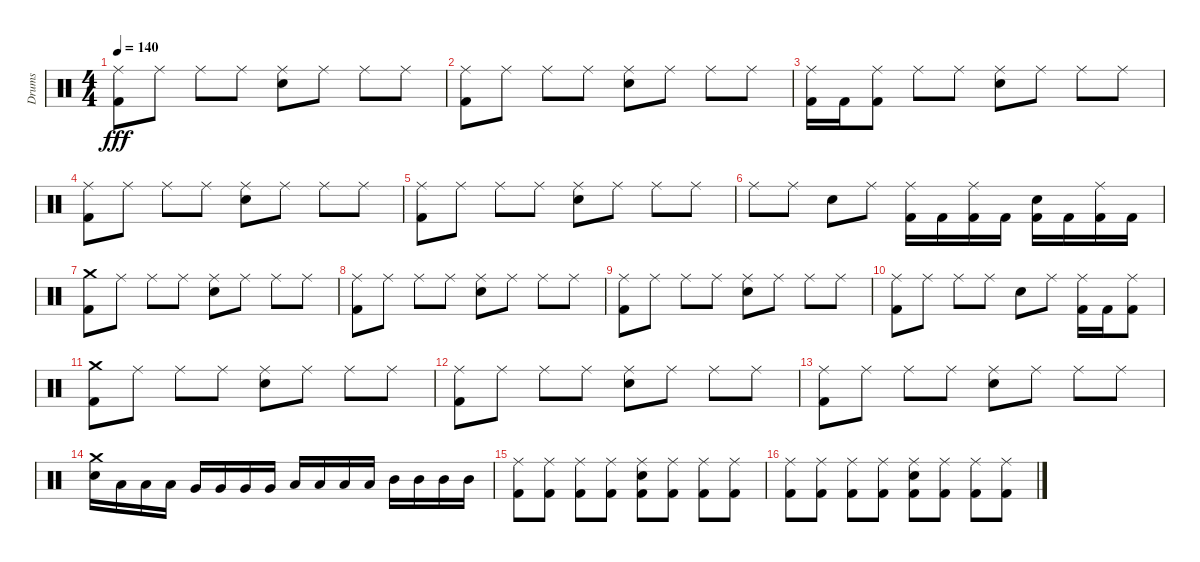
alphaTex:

\track ("Drums" "Drums") {instrument percussion}
\staff {score}
\articulation defaults
\ts (4 4)
\tempo 140
\clef neutral
\ks c
("Kick (hit) 2" "Ride (middle)").8{dy fff} "Ride (middle)".8 "Ride (middle)".8 "Ride (middle)".8 ("Electric Snare (hit)" "Ride (middle)").8 "Ride (middle)".8 "Ride (middle)".8 "Ride (middle)".8 |
("Kick (hit) 2" "Ride (middle)").8 "Ride (middle)".8 "Ride (middle)".8 "Ride (middle)".8 ("Electric Snare (hit)" "Ride (middle)").8 "Ride (middle)".8 "Ride (middle)".8 "Ride (middle)".8 |
("Kick (hit) 2" "Ride (middle)").16 "Kick (hit) 2".16 ("Kick (hit) 2" "Ride (middle)").8 "Ride (middle)".8 "Ride (middle)".8 ("Electric Snare (hit)" "Ride (middle)").8 "Ride (middle)".8 "Ride (middle)".8 "Ride (middle)".8 |
("Kick (hit) 2" "Ride (middle)").8 "Ride (middle)".8 "Ride (middle)".8 "Ride (middle)".8 ("Electric Snare (hit)" "Ride (middle)").8 "Ride (middle)".8 "Ride (middle)".8 "Ride (middle)".8 |
("Kick (hit) 2" "Ride (middle)").8 "Ride (middle)".8 "Ride (middle)".8 "Ride (middle)".8 ("Electric Snare (hit)" "Ride (middle)").8 "Ride (middle)".8 "Ride (middle)".8 "Ride (middle)".8 |
"Ride (middle)".8 "Ride (middle)".8 "Electric Snare (hit)".8 "Ride (middle)".8 ("Kick (hit) 2" "Ride (middle)").16 "Kick (hit) 2".16 ("Kick (hit) 2" "Ride (middle)").16 "Kick (hit) 2".16 ("Kick (hit) 2" "Electric Snare (hit)").16 "Kick (hit) 2".16 ("Kick (hit) 2" "Ride (middle)").16 "Kick (hit) 2".16 |
("Kick (hit) 2" "Crash medium (hit)").8 "Ride (middle)".8 "Ride (middle)".8 "Ride (middle)".8 ("Electric Snare (hit)" "Ride (middle)").8 "Ride (middle)".8 "Ride (middle)".8 "Ride (middle)".8 |
("Kick (hit) 2" "Ride (middle)").8 "Ride (middle)".8 "Ride (middle)".8 "Ride (middle)".8 ("Electric Snare (hit)" "Ride (middle)").8 "Ride (middle)".8 "Ride (middle)".8 "Ride (middle)".8 |
("Kick (hit) 2" "Ride (middle)").8 "Ride (middle)".8 "Ride (middle)".8 "Ride (middle)".8 ("Electric Snare (hit)" "Ride (middle)").8 "Ride (middle)".8 "Ride (middle)".8 "Ride (middle)".8 |
("Kick (hit) 2" "Ride (middle)").8 "Ride (middle)".8 "Ride (middle)".8 "Ride (middle)".8 "Electric Snare (hit)".8 "Ride (middle)".8 ("Kick (hit) 2" "Ride (middle)").16 "Kick (hit) 2".16 ("Kick (hit) 2" "Ride (middle)").8 |
("Kick (hit) 2" "Crash medium (hit)").8 "Ride (middle)".8 "Ride (middle)".8 "Ride (middle)".8 ("Electric Snare (hit)" "Ride (middle)").8 "Ride (middle)".8 "Ride (middle)".8 "Ride (middle)".8 |
("Kick (hit) 2" "Ride (middle)").8 "Ride (middle)".8 "Ride (middle)".8 "Ride (middle)".8 ("Electric Snare (hit)" "Ride (middle)").8 "Ride (middle)".8 "Ride (middle)".8 "Ride (middle)".8 |
("Kick (hit) 2" "Ride (middle)").8 "Ride (middle)".8 "Ride (middle)".8 "Ride (middle)".8 ("Electric Snare (hit)" "Ride (middle)").8 "Ride (middle)".8 "Ride (middle)".8 "Ride (middle)".8 |
("Electric Snare (hit)" "Crash medium (hit)").16 "Low Floor Tom (hit)".16 "Low Floor Tom (hit)".16 "Low Floor Tom (hit)".16 "Very Low Tom (hit)".16 "Very Low Tom (hit)".16 "Very Low Tom (hit)".16 "Very Low Tom (hit)".16 "Low Tom (hit)".16 "Low Tom (hit)".16 "Low Tom (hit)".16 "Low Tom (hit)".16 "Mid Tom (hit)".16 "Mid Tom (hit)".16 "Mid Tom (hit)".16 "Mid Tom (hit)".16 |
("Kick (hit) 2" "Ride (middle)").8{volume 15} ("Kick (hit) 2" "Ride (middle)").8 ("Kick (hit) 2" "Ride (middle)").8 ("Kick (hit) 2" "Ride (middle)").8 ("Kick (hit) 2" "Electric Snare (hit)" "Ride (middle)").8 ("Kick (hit) 2" "Ride (middle)").8 ("Kick (hit) 2" "Ride (middle)").8 ("Kick (hit) 2" "Ride (middle)").8 |
("Kick (hit) 2" "Ride (middle)").8{volume 14} ("Kick (hit) 2" "Ride (middle)").8 ("Kick (hit) 2" "Ride (middle)").8 ("Kick (hit) 2" "Ride (middle)").8 ("Kick (hit) 2" "Electric Snare (hit)" "Ride (middle)").8 ("Kick (hit) 2" "Ride (middle)").8 ("Kick (hit) 2" "Ride (middle)").8 ("Kick (hit) 2" "Ride (middle)").8
